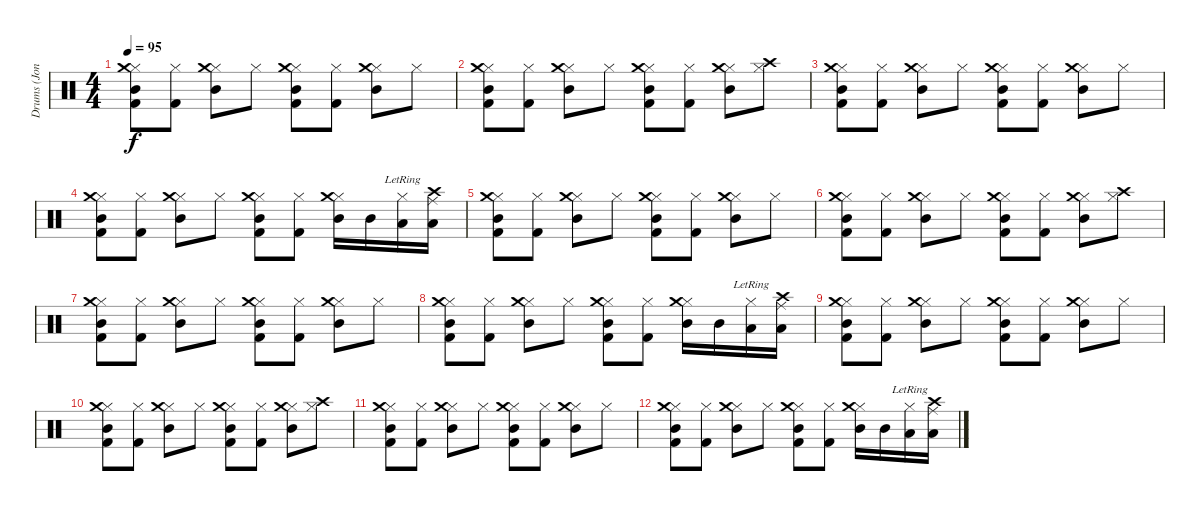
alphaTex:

\track ("Drums (Jon Lee)" "Drums (Jon") {instrument percussion}
\staff {score}
\articulation defaults
\ts (4 4)
\tempo 95
\clef neutral
\ks c
("Hi-Hat (closed)" "Crash medium (hit)" "Mid Tom (hit)" "Kick (hit) 2").8{dy f} ("Hi-Hat (closed)" "Kick (hit) 2").8 ("Hi-Hat (closed)" "Crash medium (hit)" "Mid Tom (hit)").8 "Hi-Hat (closed)".8 ("Hi-Hat (closed)" "Crash medium (hit)" "Mid Tom (hit)" "Kick (hit) 2").8 ("Hi-Hat (closed)" "Kick (hit) 2").8 ("Hi-Hat (closed)" "Crash medium (hit)" "Mid Tom (hit)").8 "Hi-Hat (closed)".8 |
("Hi-Hat (closed)" "Crash medium (hit)" "Mid Tom (hit)" "Kick (hit) 2").8 ("Hi-Hat (closed)" "Kick (hit) 2").8 ("Hi-Hat (closed)" "Crash medium (hit)" "Mid Tom (hit)").8 "Hi-Hat (closed)".8 ("Hi-Hat (closed)" "Crash medium (hit)" "Mid Tom (hit)" "Kick (hit) 2").8 ("Hi-Hat (closed)" "Kick (hit) 2").8 ("Hi-Hat (closed)" "Crash medium (hit)" "Mid Tom (hit)").8 ("Hi-Hat (closed)" "Crash high (hit)").8 |
("Hi-Hat (closed)" "Crash medium (hit)" "Mid Tom (hit)" "Kick (hit) 2").8 ("Hi-Hat (closed)" "Kick (hit) 2").8 ("Hi-Hat (closed)" "Crash medium (hit)" "Mid Tom (hit)").8 "Hi-Hat (closed)".8 ("Hi-Hat (closed)" "Crash medium (hit)" "Mid Tom (hit)" "Kick (hit) 2").8 ("Hi-Hat (closed)" "Kick (hit) 2").8 ("Hi-Hat (closed)" "Crash medium (hit)" "Mid Tom (hit)").8 "Hi-Hat (closed)".8 |
("Hi-Hat (closed)" "Crash medium (hit)" "Mid Tom (hit)" "Kick (hit) 2").8 ("Hi-Hat (closed)" "Kick (hit) 2").8 ("Hi-Hat (closed)" "Crash medium (hit)" "Mid Tom (hit)").8 "Hi-Hat (closed)".8 ("Hi-Hat (closed)" "Crash medium (hit)" "Mid Tom (hit)" "Kick (hit) 2").8 ("Hi-Hat (closed)" "Kick (hit) 2").8 ("Hi-Hat (closed)" "Crash medium (hit)" "Mid Tom (hit)").16 "Mid Tom (hit)".16 ("Hi-Hat (closed)"{lr} "Low Tom (hit)").16 ("Crash high (hit)" "Ride (middle)" "Low Tom (hit)").16 |
("Hi-Hat (closed)" "Crash medium (hit)" "Mid Tom (hit)" "Kick (hit) 2").8 ("Hi-Hat (closed)" "Kick (hit) 2").8 ("Hi-Hat (closed)" "Crash medium (hit)" "Mid Tom (hit)").8 "Hi-Hat (closed)".8 ("Hi-Hat (closed)" "Crash medium (hit)" "Mid Tom (hit)" "Kick (hit) 2").8 ("Hi-Hat (closed)" "Kick (hit) 2").8 ("Hi-Hat (closed)" "Crash medium (hit)" "Mid Tom (hit)").8 "Hi-Hat (closed)".8 |
("Hi-Hat (closed)" "Crash medium (hit)" "Mid Tom (hit)" "Kick (hit) 2").8 ("Hi-Hat (closed)" "Kick (hit) 2").8 ("Hi-Hat (closed)" "Crash medium (hit)" "Mid Tom (hit)").8 "Hi-Hat (closed)".8 ("Hi-Hat (closed)" "Crash medium (hit)" "Mid Tom (hit)" "Kick (hit) 2").8 ("Hi-Hat (closed)" "Kick (hit) 2").8 ("Hi-Hat (closed)" "Crash medium (hit)" "Mid Tom (hit)").8 ("Hi-Hat (closed)" "Crash high (hit)").8 |
("Hi-Hat (closed)" "Crash medium (hit)" "Mid Tom (hit)" "Kick (hit) 2").8 ("Hi-Hat (closed)" "Kick (hit) 2").8 ("Hi-Hat (closed)" "Crash medium (hit)" "Mid Tom (hit)").8 "Hi-Hat (closed)".8 ("Hi-Hat (closed)" "Crash medium (hit)" "Mid Tom (hit)" "Kick (hit) 2").8 ("Hi-Hat (closed)" "Kick (hit) 2").8 ("Hi-Hat (closed)" "Crash medium (hit)" "Mid Tom (hit)").8 "Hi-Hat (closed)".8 |
("Hi-Hat (closed)" "Crash medium (hit)" "Mid Tom (hit)" "Kick (hit) 2").8 ("Hi-Hat (closed)" "Kick (hit) 2").8 ("Hi-Hat (closed)" "Crash medium (hit)" "Mid Tom (hit)").8 "Hi-Hat (closed)".8 ("Hi-Hat (closed)" "Crash medium (hit)" "Mid Tom (hit)" "Kick (hit) 2").8 ("Hi-Hat (closed)" "Kick (hit) 2").8 ("Hi-Hat (closed)" "Crash medium (hit)" "Mid Tom (hit)").16 "Mid Tom (hit)".16 ("Hi-Hat (closed)"{lr} "Low Tom (hit)").16 ("Crash high (hit)" "Ride (middle)" "Low Tom (hit)").16 |
("Hi-Hat (closed)" "Crash medium (hit)" "Mid Tom (hit)" "Kick (hit) 2").8 ("Hi-Hat (closed)" "Kick (hit) 2").8 ("Hi-Hat (closed)" "Crash medium (hit)" "Mid Tom (hit)").8 "Hi-Hat (closed)".8 ("Hi-Hat (closed)" "Crash medium (hit)" "Mid Tom (hit)" "Kick (hit) 2").8 ("Hi-Hat (closed)" "Kick (hit) 2").8 ("Hi-Hat (closed)" "Crash medium (hit)" "Mid Tom (hit)").8 "Hi-Hat (closed)".8 |
("Hi-Hat (closed)" "Crash medium (hit)" "Mid Tom (hit)" "Kick (hit) 2").8 ("Hi-Hat (closed)" "Kick (hit) 2").8 ("Hi-Hat (closed)" "Crash medium (hit)" "Mid Tom (hit)").8 "Hi-Hat (closed)".8 ("Hi-Hat (closed)" "Crash medium (hit)" "Mid Tom (hit)" "Kick (hit) 2").8 ("Hi-Hat (closed)" "Kick (hit) 2").8 ("Hi-Hat (closed)" "Crash medium (hit)" "Mid Tom (hit)").8 ("Hi-Hat (closed)" "Crash high (hit)").8 |
("Hi-Hat (closed)" "Crash medium (hit)" "Mid Tom (hit)" "Kick (hit) 2").8 ("Hi-Hat (closed)" "Kick (hit) 2").8 ("Hi-Hat (closed)" "Crash medium (hit)" "Mid Tom (hit)").8 "Hi-Hat (closed)".8 ("Hi-Hat (closed)" "Crash medium (hit)" "Mid Tom (hit)" "Kick (hit) 2").8 ("Hi-Hat (closed)" "Kick (hit) 2").8 ("Hi-Hat (closed)" "Crash medium (hit)" "Mid Tom (hit)").8 "Hi-Hat (closed)".8 |
("Hi-Hat (closed)" "Crash medium (hit)" "Mid Tom (hit)" "Kick (hit) 2").8 ("Hi-Hat (closed)" "Kick (hit) 2").8 ("Hi-Hat (closed)" "Crash medium (hit)" "Mid Tom (hit)").8 "Hi-Hat (closed)".8 ("Hi-Hat (closed)" "Crash medium (hit)" "Mid Tom (hit)" "Kick (hit) 2").8 ("Hi-Hat (closed)" "Kick (hit) 2").8 ("Hi-Hat (closed)" "Crash medium (hit)" "Mid Tom (hit)").16 "Mid Tom (hit)".16 ("Hi-Hat (closed)"{lr} "Low Tom (hit)").16 ("Crash high (hit)" "Ride (middle)" "Low Tom (hit)").16
